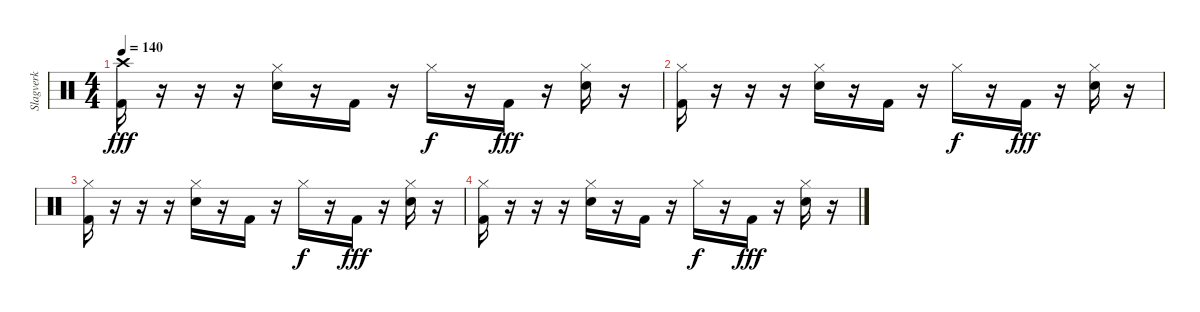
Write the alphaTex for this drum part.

\track ("Slagverk" "Slagverk") {instrument percussion}
\staff {score}
\articulation defaults
\ts (4 4)
\tempo 140
\clef neutral
\ks c
("Crash high (hit)" "Kick (hit) 2").16{dy fff} r.16 r.16 r.16 ("Hi-Hat (closed)" "Electric Snare (hit)").16 r.16 "Kick (hit) 2".16 r.16 "Hi-Hat (closed)".16{dy f} r.16 "Kick (hit) 2".16{dy fff} r.16 ("Hi-Hat (closed)" "Electric Snare (hit)").16 r.16 |
("Hi-Hat (closed)" "Kick (hit) 2").16 r.16 r.16 r.16 ("Hi-Hat (closed)" "Electric Snare (hit)").16 r.16 "Kick (hit) 2".16 r.16 "Hi-Hat (closed)".16{dy f} r.16 "Kick (hit) 2".16{dy fff} r.16 ("Hi-Hat (closed)" "Electric Snare (hit)").16 r.16 |
("Hi-Hat (closed)" "Kick (hit) 2").16 r.16 r.16 r.16 ("Hi-Hat (closed)" "Electric Snare (hit)").16 r.16 "Kick (hit) 2".16 r.16 "Hi-Hat (closed)".16{dy f} r.16 "Kick (hit) 2".16{dy fff} r.16 ("Hi-Hat (closed)" "Electric Snare (hit)").16 r.16 |
("Hi-Hat (closed)" "Kick (hit) 2").16 r.16 r.16 r.16 ("Hi-Hat (closed)" "Electric Snare (hit)").16 r.16 "Kick (hit) 2".16 r.16 "Hi-Hat (closed)".16{dy f} r.16 "Kick (hit) 2".16{dy fff} r.16 ("Hi-Hat (closed)" "Electric Snare (hit)").16 r.16
